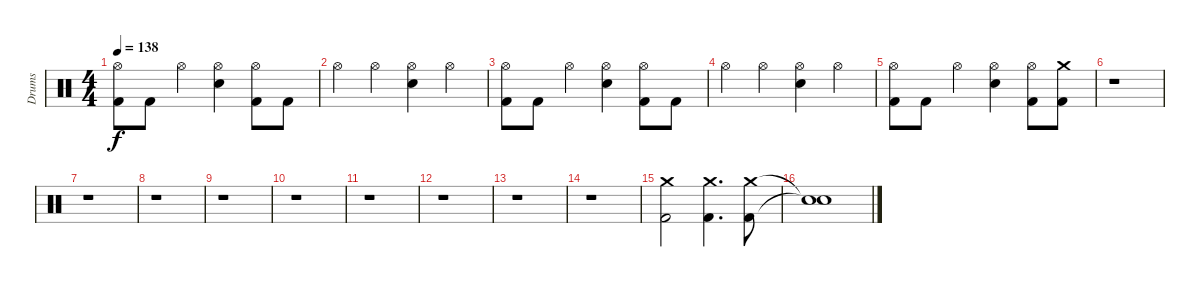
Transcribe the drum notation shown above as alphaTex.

\track ("Drums" "Drums") {instrument percussion}
\staff {score}
\articulation defaults
\ts (4 4)
\tempo 138
\clef neutral
\ks c
("Hi-Hat (open)" "Kick (hit) 2").8{dy f} "Kick (hit) 2".8 "Hi-Hat (open)".4 ("Hi-Hat (open)" "Electric Snare (hit)").4 ("Hi-Hat (open)" "Kick (hit) 2").8 "Kick (hit) 2".8 |
"Hi-Hat (open)".4 "Hi-Hat (open)".4 ("Hi-Hat (open)" "Electric Snare (hit)").4 "Hi-Hat (open)".4 |
("Hi-Hat (open)" "Kick (hit) 2").8 "Kick (hit) 2".8 "Hi-Hat (open)".4 ("Hi-Hat (open)" "Electric Snare (hit)").4 ("Hi-Hat (open)" "Kick (hit) 2").8 "Kick (hit) 2".8 |
"Hi-Hat (open)".4 "Hi-Hat (open)".4 ("Hi-Hat (open)" "Electric Snare (hit)").4 "Hi-Hat (open)".4 |
("Hi-Hat (open)" "Kick (hit) 2").8 "Kick (hit) 2".8 "Hi-Hat (open)".4 ("Hi-Hat (open)" "Electric Snare (hit)").4 ("Hi-Hat (open)" "Kick (hit) 2").8 ("Crash medium (hit)" "Kick (hit) 2").8 |
r.1 |
r.1 |
r.1 |
r.1 |
r.1 |
r.1 |
r.1 |
r.1 |
r.1 |
("Crash medium (hit)" "Kick (hit) 2").2 ("Crash medium (hit)" "Kick (hit) 2").4{d} ("Crash medium (hit)" "Kick (hit) 2").8 |
("Snare (hit)"{t} "Snare (hit)"{t}).1
